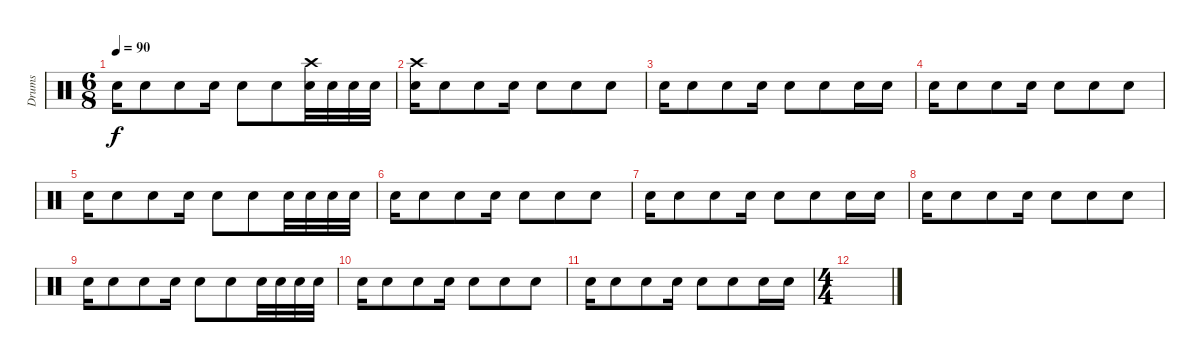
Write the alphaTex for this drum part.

\track ("Drums" "Drums") {instrument percussion}
\staff {score}
\articulation defaults
\ts (6 8)
\tempo 90
\clef neutral
\ks c "Electric Snare (hit)".16{dy f} "Electric Snare (hit)".8 "Electric Snare (hit)".8 "Electric Snare (hit)".16 "Electric Snare (hit)".8 "Electric Snare (hit)".8
("Electric Snare (hit)" "Crash high (hit)").32 "Electric Snare (hit)".32 "Electric Snare (hit)".32 "Electric Snare (hit)".32 |
("Electric Snare (hit)" "Crash high (hit)").16 "Electric Snare (hit)".8 "Electric Snare (hit)".8 "Electric Snare (hit)".16 "Electric Snare (hit)".8 "Electric Snare (hit)".8 "Electric Snare (hit)".8 |
"Electric Snare (hit)".16 "Electric Snare (hit)".8 "Electric Snare (hit)".8 "Electric Snare (hit)".16 "Electric Snare (hit)".8 "Electric Snare (hit)".8 "Electric Snare (hit)".16 "Electric Snare (hit)".16 |
"Electric Snare (hit)".16 "Electric Snare (hit)".8 "Electric Snare (hit)".8 "Electric Snare (hit)".16 "Electric Snare (hit)".8 "Electric Snare (hit)".8 "Electric Snare (hit)".8 |
"Electric Snare (hit)".16 "Electric Snare (hit)".8 "Electric Snare (hit)".8 "Electric Snare (hit)".16 "Electric Snare (hit)".8 "Electric Snare (hit)".8 "Electric Snare (hit)".32 "Electric Snare (hit)".32 "Electric Snare (hit)".32 "Electric Snare (hit)".32 |
"Electric Snare (hit)".16 "Electric Snare (hit)".8 "Electric Snare (hit)".8 "Electric Snare (hit)".16 "Electric Snare (hit)".8 "Electric Snare (hit)".8 "Electric Snare (hit)".8 |
"Electric Snare (hit)".16 "Electric Snare (hit)".8 "Electric Snare (hit)".8 "Electric Snare (hit)".16 "Electric Snare (hit)".8 "Electric Snare (hit)".8 "Electric Snare (hit)".16 "Electric Snare (hit)".16 |
"Electric Snare (hit)".16 "Electric Snare (hit)".8 "Electric Snare (hit)".8 "Electric Snare (hit)".16 "Electric Snare (hit)".8 "Electric Snare (hit)".8 "Electric Snare (hit)".8 |
"Electric Snare (hit)".16 "Electric Snare (hit)".8 "Electric Snare (hit)".8 "Electric Snare (hit)".16 "Electric Snare (hit)".8 "Electric Snare (hit)".8 "Electric Snare (hit)".32 "Electric Snare (hit)".32 "Electric Snare (hit)".32 "Electric Snare (hit)".32 |
"Electric Snare (hit)".16 "Electric Snare (hit)".8 "Electric Snare (hit)".8 "Electric Snare (hit)".16 "Electric Snare (hit)".8 "Electric Snare (hit)".8 "Electric Snare (hit)".8 |
"Electric Snare (hit)".16 "Electric Snare (hit)".8 "Electric Snare (hit)".8 "Electric Snare (hit)".16 "Electric Snare (hit)".8 "Electric Snare (hit)".8 "Electric Snare (hit)".16 "Electric Snare (hit)".16 |
\ts (4 4)
